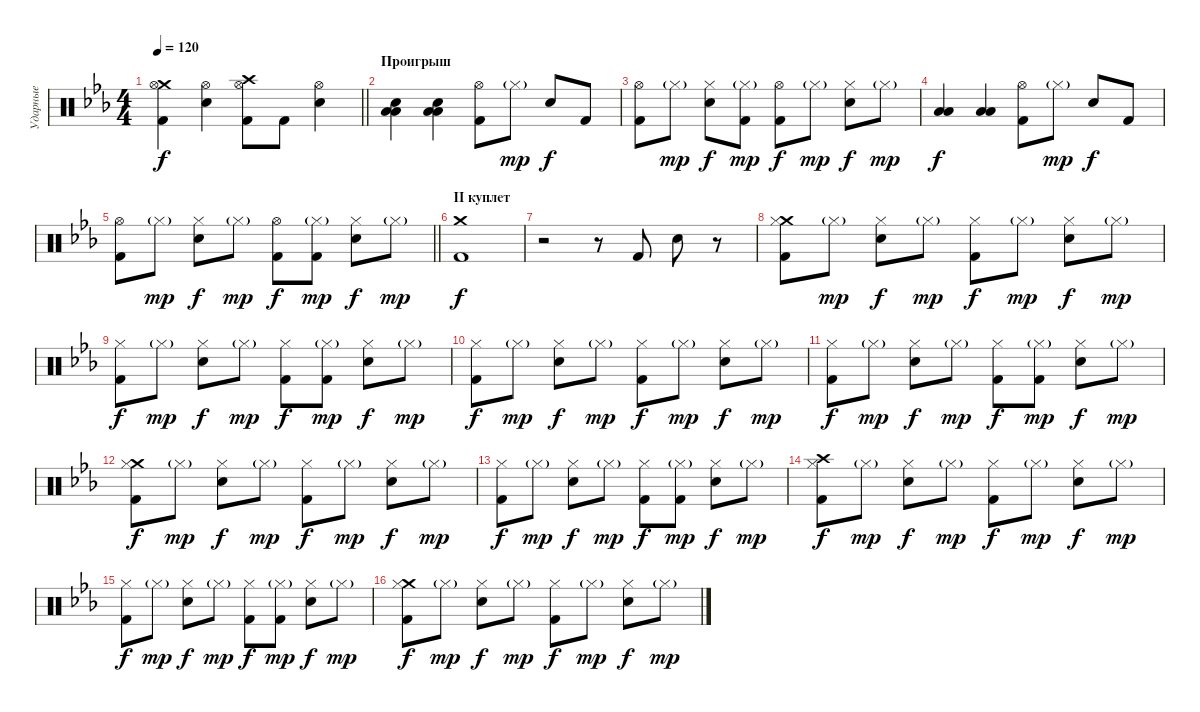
\track ("Ударные" "Ударные") {instrument percussion}
\staff {score}
\articulation defaults
\ts (4 4)
\tempo 120
\clef neutral
\barLineRight lightlight
\ks cminor
("Crash medium (hit)" "Kick (hit) 2" "Hi-Hat (open)").4{dy f} ("Electric Snare (hit)" "Hi-Hat (open)").4 ("Crash high (hit)" "Kick (hit) 2" "Hi-Hat (open)").8 "Kick (hit) 2".8 ("Electric Snare (hit)" "Hi-Hat (open)").4 |
\section ("" "Проигрыш")
("Low Tom (hit)" "Low Floor Tom (hit)" "Electric Snare (hit)").4 ("Low Tom (hit)" "Low Floor Tom (hit)" "Electric Snare (hit)").4 ("Kick (hit) 2" "Hi-Hat (open)").8 "Hi-Hat (closed)"{g}.8{dy mp} "Electric Snare (hit)".8{dy f} "Kick (hit) 2".8 |
("Kick (hit) 2" "Hi-Hat (open)").8 "Hi-Hat (closed)"{g}.8{dy mp} ("Electric Snare (hit)" "Hi-Hat (closed)").8{dy f} ("Kick (hit) 2" "Hi-Hat (closed)"{g}).8{dy mp} ("Kick (hit) 2" "Hi-Hat (open)").8{dy f} "Hi-Hat (closed)"{g}.8{dy mp} ("Electric Snare (hit)" "Hi-Hat (closed)").8{dy f} "Hi-Hat (closed)"{g}.8{dy mp} |
("Low Tom (hit)" "Low Floor Tom (hit)").4{dy f} ("Low Tom (hit)" "Low Floor Tom (hit)").4 ("Kick (hit) 2" "Hi-Hat (open)").8 "Hi-Hat (closed)"{g}.8{dy mp} "Electric Snare (hit)".8{dy f} "Kick (hit) 2".8 |
\barLineRight lightlight
("Kick (hit) 2" "Hi-Hat (open)").8 "Hi-Hat (closed)"{g}.8{dy mp} ("Electric Snare (hit)" "Hi-Hat (closed)").8{dy f} "Hi-Hat (closed)"{g}.8{dy mp} ("Kick (hit) 2" "Hi-Hat (open)").8{dy f} ("Kick (hit) 2" "Hi-Hat (closed)"{g}).8{dy mp} ("Electric Snare (hit)" "Hi-Hat (closed)").8{dy f} "Hi-Hat (closed)"{g}.8{dy mp} |
\section ("" "II куплет")
("Crash medium (hit)" "Kick (hit) 2").1{dy f} |
r.2 r.8 "Kick (hit) 2".8 "Electric Snare (hit)".8 r.8 |
("Crash medium (hit)" "Kick (hit) 2" "Hi-Hat (closed)").8 "Hi-Hat (closed)"{g}.8{dy mp} ("Electric Snare (hit)" "Hi-Hat (closed)").8{dy f} "Hi-Hat (closed)"{g}.8{dy mp} ("Kick (hit) 2" "Hi-Hat (closed)").8{dy f} "Hi-Hat (closed)"{g}.8{dy mp} ("Electric Snare (hit)" "Hi-Hat (closed)").8{dy f} "Hi-Hat (closed)"{g}.8{dy mp} |
("Kick (hit) 2" "Hi-Hat (closed)").8{dy f} "Hi-Hat (closed)"{g}.8{dy mp} ("Electric Snare (hit)" "Hi-Hat (closed)").8{dy f} "Hi-Hat (closed)"{g}.8{dy mp} ("Kick (hit) 2" "Hi-Hat (closed)").8{dy f} ("Kick (hit) 2" "Hi-Hat (closed)"{g}).8{dy mp} ("Electric Snare (hit)" "Hi-Hat (closed)").8{dy f} "Hi-Hat (closed)"{g}.8{dy mp} |
("Kick (hit) 2" "Hi-Hat (closed)").8{dy f} "Hi-Hat (closed)"{g}.8{dy mp} ("Electric Snare (hit)" "Hi-Hat (closed)").8{dy f} "Hi-Hat (closed)"{g}.8{dy mp} ("Kick (hit) 2" "Hi-Hat (closed)").8{dy f} "Hi-Hat (closed)"{g}.8{dy mp} ("Electric Snare (hit)" "Hi-Hat (closed)").8{dy f} "Hi-Hat (closed)"{g}.8{dy mp} |
("Kick (hit) 2" "Hi-Hat (closed)").8{dy f} "Hi-Hat (closed)"{g}.8{dy mp} ("Electric Snare (hit)" "Hi-Hat (closed)").8{dy f} "Hi-Hat (closed)"{g}.8{dy mp} ("Kick (hit) 2" "Hi-Hat (closed)").8{dy f} ("Kick (hit) 2" "Hi-Hat (closed)"{g}).8{dy mp} ("Electric Snare (hit)" "Hi-Hat (closed)").8{dy f} "Hi-Hat (closed)"{g}.8{dy mp} |
("Crash medium (hit)" "Kick (hit) 2" "Hi-Hat (closed)").8{dy f} "Hi-Hat (closed)"{g}.8{dy mp} ("Electric Snare (hit)" "Hi-Hat (closed)").8{dy f} "Hi-Hat (closed)"{g}.8{dy mp} ("Kick (hit) 2" "Hi-Hat (closed)").8{dy f} "Hi-Hat (closed)"{g}.8{dy mp} ("Electric Snare (hit)" "Hi-Hat (closed)").8{dy f} "Hi-Hat (closed)"{g}.8{dy mp} |
("Kick (hit) 2" "Hi-Hat (closed)").8{dy f} "Hi-Hat (closed)"{g}.8{dy mp} ("Electric Snare (hit)" "Hi-Hat (closed)").8{dy f} "Hi-Hat (closed)"{g}.8{dy mp} ("Kick (hit) 2" "Hi-Hat (closed)").8{dy f} ("Kick (hit) 2" "Hi-Hat (closed)"{g}).8{dy mp} ("Electric Snare (hit)" "Hi-Hat (closed)").8{dy f} "Hi-Hat (closed)"{g}.8{dy mp} |
("Crash high (hit)" "Kick (hit) 2" "Hi-Hat (closed)").8{dy f} "Hi-Hat (closed)"{g}.8{dy mp} ("Electric Snare (hit)" "Hi-Hat (closed)").8{dy f} "Hi-Hat (closed)"{g}.8{dy mp} ("Kick (hit) 2" "Hi-Hat (closed)").8{dy f} "Hi-Hat (closed)"{g}.8{dy mp} ("Electric Snare (hit)" "Hi-Hat (closed)").8{dy f} "Hi-Hat (closed)"{g}.8{dy mp} |
("Kick (hit) 2" "Hi-Hat (closed)").8{dy f} "Hi-Hat (closed)"{g}.8{dy mp} ("Electric Snare (hit)" "Hi-Hat (closed)").8{dy f} "Hi-Hat (closed)"{g}.8{dy mp} ("Kick (hit) 2" "Hi-Hat (closed)").8{dy f} ("Kick (hit) 2" "Hi-Hat (closed)"{g}).8{dy mp} ("Electric Snare (hit)" "Hi-Hat (closed)").8{dy f} "Hi-Hat (closed)"{g}.8{dy mp} |
("Crash medium (hit)" "Kick (hit) 2" "Hi-Hat (closed)").8{dy f} "Hi-Hat (closed)"{g}.8{dy mp} ("Electric Snare (hit)" "Hi-Hat (closed)").8{dy f} "Hi-Hat (closed)"{g}.8{dy mp} ("Kick (hit) 2" "Hi-Hat (closed)").8{dy f} "Hi-Hat (closed)"{g}.8{dy mp} ("Electric Snare (hit)" "Hi-Hat (closed)").8{dy f} "Hi-Hat (closed)"{g}.8{dy mp}
